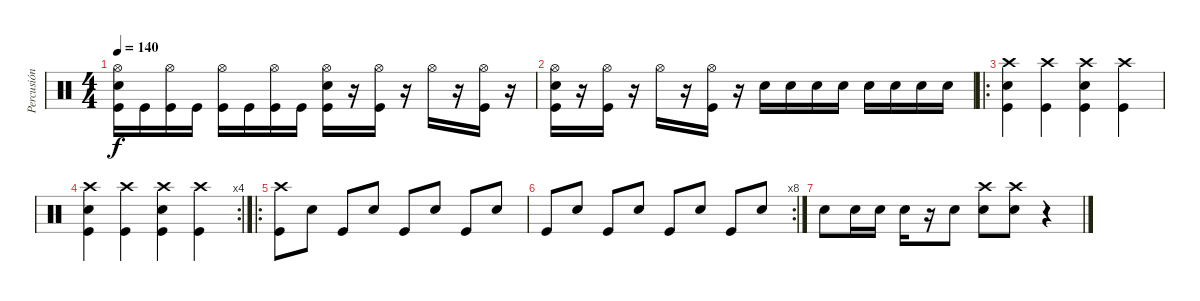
\track ("Percusión" "Percusión") {instrument percussion}
\staff {score}
\articulation defaults
\ts (4 4)
\tempo 140
\clef neutral
\ks c
("Hi-Hat (open)" "Snare (hit) 2" "Kick (hit)").16{dy f} "Kick (hit)".16 ("Hi-Hat (open)" "Kick (hit)").16 "Kick (hit)".16 ("Hi-Hat (open)" "Kick (hit)").16 "Kick (hit)".16 ("Hi-Hat (open)" "Kick (hit)").16 "Kick (hit)".16 ("Hi-Hat (open)" "Snare (hit) 2" "Kick (hit)").16 r.16 ("Hi-Hat (open)" "Kick (hit)").16 r.16 "Hi-Hat (open)".16 r.16 ("Hi-Hat (open)" "Kick (hit)").16 r.16 |
("Hi-Hat (open)" "Snare (hit) 2" "Kick (hit)").16 r.16 ("Hi-Hat (open)" "Kick (hit)").16 r.16 "Hi-Hat (open)".16 r.16 ("Hi-Hat (open)" "Kick (hit)").16 r.16 "Snare (hit) 2".16 "Snare (hit) 2".16 "Snare (hit) 2".16 "Snare (hit) 2".16 "Snare (hit) 2".16 "Snare (hit) 2".16 "Snare (hit) 2".16 "Snare (hit) 2".16 |
\ro
("Crash high (hit)" "Snare (hit) 2" "Kick (hit)").4 ("Crash high (hit)" "Kick (hit)").4 ("Crash high (hit)" "Snare (hit) 2" "Kick (hit)").4 ("Crash high (hit)" "Kick (hit)").4 |
\rc 4
("Crash high (hit)" "Snare (hit) 2" "Kick (hit)").4 ("Crash high (hit)" "Kick (hit)").4 ("Crash high (hit)" "Snare (hit) 2" "Kick (hit)").4 ("Crash high (hit)" "Kick (hit)").4 |
\ro
("Crash high (hit)" "Kick (hit)").8 "Snare (hit) 2".8 "Kick (hit)".8 "Snare (hit) 2".8 "Kick (hit)".8 "Snare (hit) 2".8 "Kick (hit)".8 "Snare (hit) 2".8 |
\rc 8 "Kick (hit)".8 "Snare (hit) 2".8 "Kick (hit)".8 "Snare (hit) 2".8 "Kick (hit)".8 "Snare (hit) 2".8 "Kick (hit)".8 "Snare (hit) 2".8
|
"Snare (hit) 2".8 "Snare (hit) 2".16 "Snare (hit) 2".16 "Snare (hit) 2".16 r.16 "Snare (hit) 2".8 ("Crash high (hit)" "Snare (hit) 2").8 ("Crash high (hit)" "Snare (hit) 2").8 r.4
